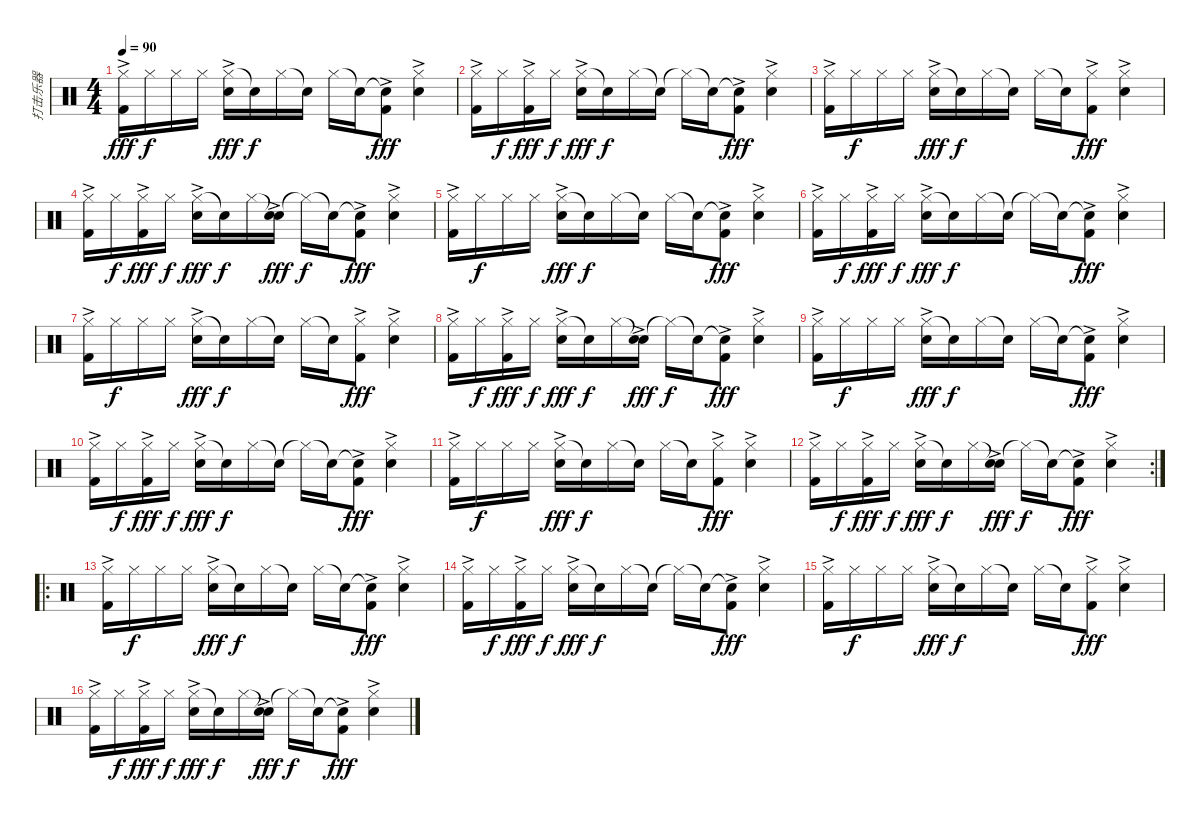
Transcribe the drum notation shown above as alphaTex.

\track ("打击乐器" "打击乐器") {instrument percussion}
\staff {score}
\articulation defaults
\ts (4 4)
\tempo 90
\clef neutral
\ks c
("Hi-Hat (closed)" "Kick (hit) 2"{ac}).16{dy fff} "Hi-Hat (closed)".16{dy f} "Hi-Hat (closed)".16 "Hi-Hat (closed)".16 ("Hi-Hat (closed)" "Electric Snare (hit)"{ac}).16{dy fff} "Snare (hit)"{t}.16{dy f} "Hi-Hat (closed)".16 "Snare (hit)"{t}.16 "Hi-Hat (closed)".16 "Snare (hit)"{t}.16 ("Snare (hit)"{t} "Kick (hit) 2"{ac}).8{dy fff} ("Hi-Hat (closed)" "Electric Snare (hit)"{ac}).4 |
("Hi-Hat (closed)" "Kick (hit) 2"{ac}).16 "Hi-Hat (closed)".16{dy f} ("Hi-Hat (closed)" "Kick (hit) 2"{ac}).16{dy fff} "Hi-Hat (closed)".16{dy f} ("Hi-Hat (closed)" "Electric Snare (hit)"{ac}).16{dy fff} "Snare (hit)"{t}.16{dy f} "Hi-Hat (closed)".16 "Snare (hit)"{t}.16 "Hi-Hat (closed)"{t}.16 "Snare (hit)"{t}.16 ("Snare (hit)"{t} "Kick (hit) 2"{ac}).8{dy fff} ("Hi-Hat (closed)" "Electric Snare (hit)"{ac}).4 |
("Hi-Hat (closed)" "Kick (hit) 2"{ac}).16 "Hi-Hat (closed)".16{dy f} "Hi-Hat (closed)".16 "Hi-Hat (closed)".16 ("Hi-Hat (closed)" "Electric Snare (hit)"{ac}).16{dy fff} "Snare (hit)"{t}.16{dy f} "Hi-Hat (closed)".16 "Snare (hit)"{t}.16 "Hi-Hat (closed)".16 "Snare (hit)"{t}.16 ("Hi-Hat (closed)" "Kick (hit) 2"{ac}).8{dy fff} ("Hi-Hat (closed)" "Electric Snare (hit)"{ac}).4 |
("Hi-Hat (closed)" "Kick (hit) 2"{ac}).16 "Hi-Hat (closed)".16{dy f} ("Hi-Hat (closed)" "Kick (hit) 2"{ac}).16{dy fff} "Hi-Hat (closed)".16{dy f} ("Hi-Hat (closed)" "Electric Snare (hit)"{ac}).16{dy fff} "Snare (hit)"{t}.16{dy f} "Hi-Hat (closed)".16 ("Snare (hit)"{t} "Electric Snare (hit)"{ac}).16{dy fff} "Hi-Hat (closed)"{t}.16{dy f} "Snare (hit)"{t}.16 ("Snare (hit)"{t} "Kick (hit) 2"{ac}).8{dy fff} ("Hi-Hat (closed)" "Electric Snare (hit)"{ac}).4 |
("Hi-Hat (closed)" "Kick (hit) 2"{ac}).16 "Hi-Hat (closed)".16{dy f} "Hi-Hat (closed)".16 "Hi-Hat (closed)".16 ("Hi-Hat (closed)" "Electric Snare (hit)"{ac}).16{dy fff} "Snare (hit)"{t}.16{dy f} "Hi-Hat (closed)".16 "Snare (hit)"{t}.16 "Hi-Hat (closed)".16 "Snare (hit)"{t}.16 ("Snare (hit)"{t} "Kick (hit) 2"{ac}).8{dy fff} ("Hi-Hat (closed)" "Electric Snare (hit)"{ac}).4 |
("Hi-Hat (closed)" "Kick (hit) 2"{ac}).16 "Hi-Hat (closed)".16{dy f} ("Hi-Hat (closed)" "Kick (hit) 2"{ac}).16{dy fff} "Hi-Hat (closed)".16{dy f} ("Hi-Hat (closed)" "Electric Snare (hit)"{ac}).16{dy fff} "Snare (hit)"{t}.16{dy f} "Hi-Hat (closed)".16 "Snare (hit)"{t}.16 "Hi-Hat (closed)"{t}.16 "Snare (hit)"{t}.16 ("Snare (hit)"{t} "Kick (hit) 2"{ac}).8{dy fff} ("Hi-Hat (closed)" "Electric Snare (hit)"{ac}).4 |
("Hi-Hat (closed)" "Kick (hit) 2"{ac}).16 "Hi-Hat (closed)".16{dy f} "Hi-Hat (closed)".16 "Hi-Hat (closed)".16 ("Hi-Hat (closed)" "Electric Snare (hit)"{ac}).16{dy fff} "Snare (hit)"{t}.16{dy f} "Hi-Hat (closed)".16 "Snare (hit)"{t}.16 "Hi-Hat (closed)".16 "Snare (hit)"{t}.16 ("Hi-Hat (closed)" "Kick (hit) 2"{ac}).8{dy fff} ("Hi-Hat (closed)" "Electric Snare (hit)"{ac}).4 |
("Hi-Hat (closed)" "Kick (hit) 2"{ac}).16 "Hi-Hat (closed)".16{dy f} ("Hi-Hat (closed)" "Kick (hit) 2"{ac}).16{dy fff} "Hi-Hat (closed)".16{dy f} ("Hi-Hat (closed)" "Electric Snare (hit)"{ac}).16{dy fff} "Snare (hit)"{t}.16{dy f} "Hi-Hat (closed)".16 ("Snare (hit)"{t} "Electric Snare (hit)"{ac}).16{dy fff} "Hi-Hat (closed)"{t}.16{dy f} "Snare (hit)"{t}.16 ("Snare (hit)"{t} "Kick (hit) 2"{ac}).8{dy fff} ("Hi-Hat (closed)" "Electric Snare (hit)"{ac}).4 |
("Hi-Hat (closed)" "Kick (hit) 2"{ac}).16 "Hi-Hat (closed)".16{dy f} "Hi-Hat (closed)".16 "Hi-Hat (closed)".16 ("Hi-Hat (closed)" "Electric Snare (hit)"{ac}).16{dy fff} "Snare (hit)"{t}.16{dy f} "Hi-Hat (closed)".16 "Snare (hit)"{t}.16 "Hi-Hat (closed)".16 "Snare (hit)"{t}.16 ("Snare (hit)"{t} "Kick (hit) 2"{ac}).8{dy fff} ("Hi-Hat (closed)" "Electric Snare (hit)"{ac}).4 |
("Hi-Hat (closed)" "Kick (hit) 2"{ac}).16 "Hi-Hat (closed)".16{dy f} ("Hi-Hat (closed)" "Kick (hit) 2"{ac}).16{dy fff} "Hi-Hat (closed)".16{dy f} ("Hi-Hat (closed)" "Electric Snare (hit)"{ac}).16{dy fff} "Snare (hit)"{t}.16{dy f} "Hi-Hat (closed)".16 "Snare (hit)"{t}.16 "Hi-Hat (closed)"{t}.16 "Snare (hit)"{t}.16 ("Snare (hit)"{t} "Kick (hit) 2"{ac}).8{dy fff} ("Hi-Hat (closed)" "Electric Snare (hit)"{ac}).4 |
("Hi-Hat (closed)" "Kick (hit) 2"{ac}).16 "Hi-Hat (closed)".16{dy f} "Hi-Hat (closed)".16 "Hi-Hat (closed)".16 ("Hi-Hat (closed)" "Electric Snare (hit)"{ac}).16{dy fff} "Snare (hit)"{t}.16{dy f} "Hi-Hat (closed)".16 "Snare (hit)"{t}.16 "Hi-Hat (closed)".16 "Snare (hit)"{t}.16 ("Hi-Hat (closed)" "Kick (hit) 2"{ac}).8{dy fff} ("Hi-Hat (closed)" "Electric Snare (hit)"{ac}).4 |
\rc 2
("Hi-Hat (closed)" "Kick (hit) 2"{ac}).16 "Hi-Hat (closed)".16{dy f} ("Hi-Hat (closed)" "Kick (hit) 2"{ac}).16{dy fff} "Hi-Hat (closed)".16{dy f} ("Hi-Hat (closed)" "Electric Snare (hit)"{ac}).16{dy fff} "Snare (hit)"{t}.16{dy f} "Hi-Hat (closed)".16 ("Snare (hit)"{t} "Electric Snare (hit)"{ac}).16{dy fff} "Hi-Hat (closed)"{t}.16{dy f} "Snare (hit)"{t}.16 ("Snare (hit)"{t} "Kick (hit) 2"{ac}).8{dy fff} ("Hi-Hat (closed)" "Electric Snare (hit)"{ac}).4 |
\ro
("Hi-Hat (closed)" "Kick (hit) 2"{ac}).16 "Hi-Hat (closed)".16{dy f} "Hi-Hat (closed)".16 "Hi-Hat (closed)".16 ("Hi-Hat (closed)" "Electric Snare (hit)"{ac}).16{dy fff} "Snare (hit)"{t}.16{dy f} "Hi-Hat (closed)".16 "Snare (hit)"{t}.16 "Hi-Hat (closed)".16 "Snare (hit)"{t}.16 ("Snare (hit)"{t} "Kick (hit) 2"{ac}).8{dy fff} ("Hi-Hat (closed)" "Electric Snare (hit)"{ac}).4 |
("Hi-Hat (closed)" "Kick (hit) 2"{ac}).16 "Hi-Hat (closed)".16{dy f} ("Hi-Hat (closed)" "Kick (hit) 2"{ac}).16{dy fff} "Hi-Hat (closed)".16{dy f} ("Hi-Hat (closed)" "Electric Snare (hit)"{ac}).16{dy fff} "Snare (hit)"{t}.16{dy f} "Hi-Hat (closed)".16 "Snare (hit)"{t}.16 "Hi-Hat (closed)"{t}.16 "Snare (hit)"{t}.16 ("Snare (hit)"{t} "Kick (hit) 2"{ac}).8{dy fff} ("Hi-Hat (closed)" "Electric Snare (hit)"{ac}).4 |
("Hi-Hat (closed)" "Kick (hit) 2"{ac}).16 "Hi-Hat (closed)".16{dy f} "Hi-Hat (closed)".16 "Hi-Hat (closed)".16 ("Hi-Hat (closed)" "Electric Snare (hit)"{ac}).16{dy fff} "Snare (hit)"{t}.16{dy f} "Hi-Hat (closed)".16 "Snare (hit)"{t}.16 "Hi-Hat (closed)".16 "Snare (hit)"{t}.16 ("Hi-Hat (closed)" "Kick (hit) 2"{ac}).8{dy fff} ("Hi-Hat (closed)" "Electric Snare (hit)"{ac}).4 |
("Hi-Hat (closed)" "Kick (hit) 2"{ac}).16 "Hi-Hat (closed)".16{dy f} ("Hi-Hat (closed)" "Kick (hit) 2"{ac}).16{dy fff} "Hi-Hat (closed)".16{dy f} ("Hi-Hat (closed)" "Electric Snare (hit)"{ac}).16{dy fff} "Snare (hit)"{t}.16{dy f} "Hi-Hat (closed)".16 ("Snare (hit)"{t} "Electric Snare (hit)"{ac}).16{dy fff} "Hi-Hat (closed)"{t}.16{dy f} "Snare (hit)"{t}.16 ("Snare (hit)"{t} "Kick (hit) 2"{ac}).8{dy fff} ("Hi-Hat (closed)" "Electric Snare (hit)"{ac}).4
